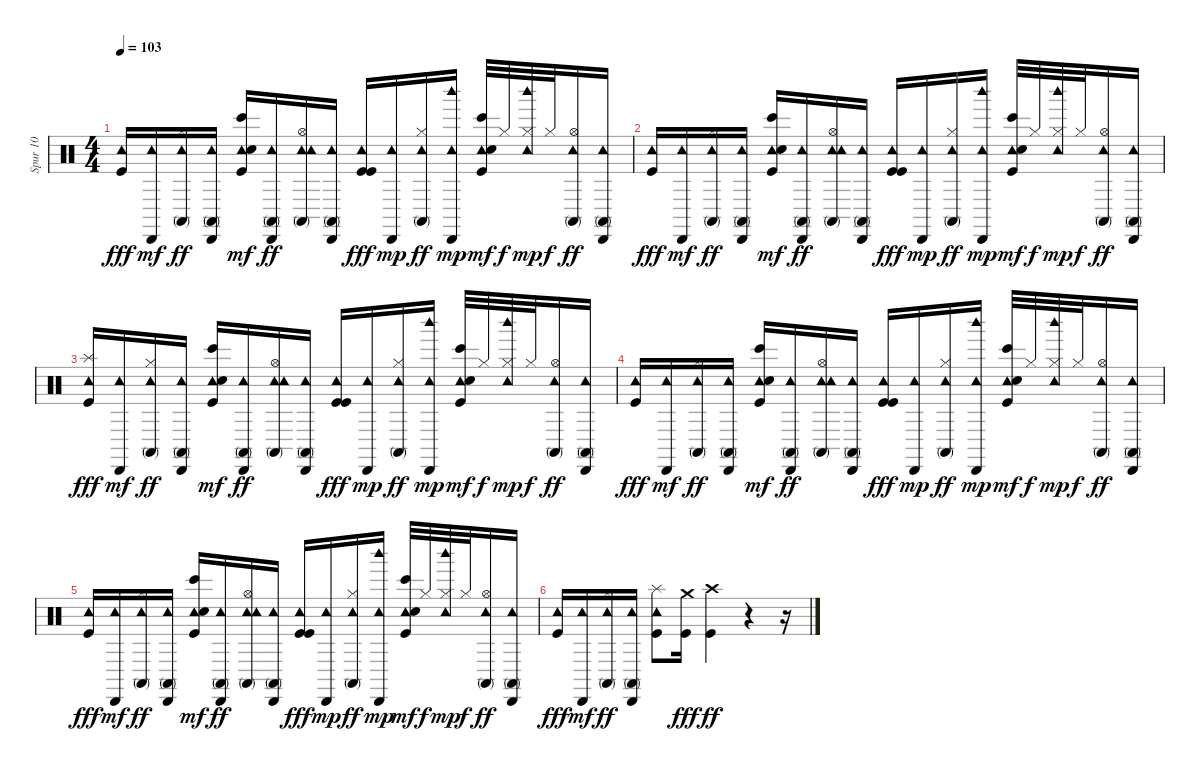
\track ("Spur 10" "Spur 10") {instrument percussion}
\staff {score}
\articulation defaults
\ts (4 4)
\tempo 103
\clef neutral
\ks c
("Tambourine (hit)" "Kick (hit)").16{dy fff} ("Tambourine (hit)" "Cabasa (hit)").16{dy mf} ("Tambourine (hit)" "Hi-Hat (closed)" "Conga high (mute)").16{dy ff} ("Tambourine (hit)" "Cabasa (hit)" "Conga high (mute)").16 ("Tambourine (hit)" "Kick (hit)" "Electric Snare (hit)" "Bongo High (hit)").16{dy mf} ("Tambourine (hit)" "Cabasa (hit)" "Conga high (mute)").16{dy ff} ("Tambourine (hit)" "Hi-Hat (open)" "Tambourine (hit)" "Conga high (mute)").16 ("Tambourine (hit)" "Cabasa (hit)" "Conga high (mute)").16 ("Tambourine (hit)" "Kick (hit)" "Kick (hit)").16{dy fff} ("Cabasa (hit)" "Tambourine (hit)").16{dy mp} ("Hi-Hat (closed)" "Tambourine (hit)" "Conga high (mute)").16{dy ff} ("Cabasa (hit)" "Tambourine (hit)" "Woodblock high (hit)").16{dy mp} ("Tambourine (hit)" "Kick (hit)" "Electric Snare (hit)" "Bongo High (hit)").32{dy mf} "Hi-Hat (closed)".32{dy f} ("Hi-Hat (closed)" "Tambourine (hit)" "Woodblock high (hit)").32{dy mp} "Hi-Hat (closed)".32{dy f} ("Hi-Hat (open)" "Tambourine (hit)" "Conga high (mute)").16{dy ff} ("Tambourine (hit)" "Cabasa (hit)" "Conga high (mute)").16 |
("Tambourine (hit)" "Kick (hit)").16{dy fff} ("Tambourine (hit)" "Cabasa (hit)").16{dy mf} ("Tambourine (hit)" "Hi-Hat (closed)" "Conga high (mute)").16{dy ff} ("Tambourine (hit)" "Cabasa (hit)" "Conga high (mute)").16 ("Tambourine (hit)" "Kick (hit)" "Electric Snare (hit)" "Bongo High (hit)").16{dy mf} ("Tambourine (hit)" "Cabasa (hit)" "Conga high (mute)").16{dy ff} ("Tambourine (hit)" "Hi-Hat (open)" "Tambourine (hit)" "Conga high (mute)").16 ("Tambourine (hit)" "Cabasa (hit)" "Conga high (mute)").16 ("Tambourine (hit)" "Kick (hit)" "Kick (hit)").16{dy fff} ("Cabasa (hit)" "Tambourine (hit)").16{dy mp} ("Hi-Hat (closed)" "Tambourine (hit)" "Conga high (mute)").16{dy ff} ("Cabasa (hit)" "Tambourine (hit)" "Woodblock high (hit)").16{dy mp} ("Tambourine (hit)" "Kick (hit)" "Electric Snare (hit)" "Bongo High (hit)").32{dy mf} "Hi-Hat (closed)".32{dy f} ("Hi-Hat (closed)" "Tambourine (hit)" "Woodblock high (hit)").32{dy mp} "Hi-Hat (closed)".32{dy f} ("Hi-Hat (open)" "Tambourine (hit)" "Conga high (mute)").16{dy ff} ("Tambourine (hit)" "Cabasa (hit)" "Conga high (mute)").16 |
("Tambourine (hit)" "Splash (hit)" "Kick (hit)").16{dy fff} ("Tambourine (hit)" "Cabasa (hit)").16{dy mf} ("Tambourine (hit)" "Hi-Hat (closed)" "Conga high (mute)").16{dy ff} ("Tambourine (hit)" "Cabasa (hit)" "Conga high (mute)").16 ("Tambourine (hit)" "Kick (hit)" "Electric Snare (hit)" "Bongo High (hit)").16{dy mf} ("Tambourine (hit)" "Cabasa (hit)" "Conga high (mute)").16{dy ff} ("Tambourine (hit)" "Hi-Hat (open)" "Tambourine (hit)" "Conga high (mute)").16 ("Tambourine (hit)" "Cabasa (hit)" "Conga high (mute)").16 ("Tambourine (hit)" "Kick (hit)" "Kick (hit)").16{dy fff} ("Cabasa (hit)" "Tambourine (hit)").16{dy mp} ("Hi-Hat (closed)" "Tambourine (hit)" "Conga high (mute)").16{dy ff} ("Cabasa (hit)" "Tambourine (hit)" "Woodblock high (hit)").16{dy mp} ("Tambourine (hit)" "Kick (hit)" "Electric Snare (hit)" "Bongo High (hit)").32{dy mf} "Hi-Hat (closed)".32{dy f} ("Hi-Hat (closed)" "Tambourine (hit)" "Woodblock high (hit)").32{dy mp} "Hi-Hat (closed)".32{dy f} ("Hi-Hat (open)" "Tambourine (hit)" "Conga high (mute)").16{dy ff} ("Tambourine (hit)" "Cabasa (hit)" "Conga high (mute)").16 |
("Tambourine (hit)" "Kick (hit)").16{dy fff} ("Tambourine (hit)" "Cabasa (hit)").16{dy mf} ("Tambourine (hit)" "Hi-Hat (closed)" "Conga high (mute)").16{dy ff} ("Tambourine (hit)" "Cabasa (hit)" "Conga high (mute)").16 ("Tambourine (hit)" "Kick (hit)" "Electric Snare (hit)" "Bongo High (hit)").16{dy mf} ("Tambourine (hit)" "Cabasa (hit)" "Conga high (mute)").16{dy ff} ("Tambourine (hit)" "Hi-Hat (open)" "Tambourine (hit)" "Conga high (mute)").16 ("Tambourine (hit)" "Cabasa (hit)" "Conga high (mute)").16 ("Tambourine (hit)" "Kick (hit)" "Kick (hit)").16{dy fff} ("Cabasa (hit)" "Tambourine (hit)").16{dy mp} ("Hi-Hat (closed)" "Tambourine (hit)" "Conga high (mute)").16{dy ff} ("Cabasa (hit)" "Tambourine (hit)" "Woodblock high (hit)").16{dy mp} ("Tambourine (hit)" "Kick (hit)" "Electric Snare (hit)" "Bongo High (hit)").32{dy mf} "Hi-Hat (closed)".32{dy f} ("Hi-Hat (closed)" "Tambourine (hit)" "Woodblock high (hit)").32{dy mp} "Hi-Hat (closed)".32{dy f} ("Hi-Hat (open)" "Tambourine (hit)" "Conga high (mute)").16{dy ff} ("Tambourine (hit)" "Cabasa (hit)" "Conga high (mute)").16 |
("Tambourine (hit)" "Kick (hit)").16{dy fff} ("Tambourine (hit)" "Cabasa (hit)").16{dy mf} ("Tambourine (hit)" "Hi-Hat (closed)" "Conga high (mute)").16{dy ff} ("Tambourine (hit)" "Cabasa (hit)" "Conga high (mute)").16 ("Tambourine (hit)" "Kick (hit)" "Electric Snare (hit)" "Bongo High (hit)").16{dy mf} ("Tambourine (hit)" "Cabasa (hit)" "Conga high (mute)").16{dy ff} ("Tambourine (hit)" "Hi-Hat (open)" "Tambourine (hit)" "Conga high (mute)").16 ("Tambourine (hit)" "Cabasa (hit)" "Conga high (mute)").16 ("Tambourine (hit)" "Kick (hit)" "Kick (hit)").16{dy fff} ("Cabasa (hit)" "Tambourine (hit)").16{dy mp} ("Hi-Hat (closed)" "Tambourine (hit)" "Conga high (mute)").16{dy ff} ("Cabasa (hit)" "Tambourine (hit)" "Woodblock high (hit)").16{dy mp} ("Tambourine (hit)" "Kick (hit)" "Electric Snare (hit)" "Bongo High (hit)").32{dy mf} "Hi-Hat (closed)".32{dy f} ("Hi-Hat (closed)" "Tambourine (hit)" "Woodblock high (hit)").32{dy mp} "Hi-Hat (closed)".32{dy f} ("Hi-Hat (open)" "Tambourine (hit)" "Conga high (mute)").16{dy ff} ("Tambourine (hit)" "Cabasa (hit)" "Conga high (mute)").16 |
("Tambourine (hit)" "Kick (hit)").16{dy fff} ("Tambourine (hit)" "Cabasa (hit)").16{dy mf} ("Tambourine (hit)" "Hi-Hat (closed)" "Conga high (mute)").16{dy ff} ("Tambourine (hit)" "Cabasa (hit)" "Conga high (mute)").16 ("Tambourine (hit)" "Kick (hit)" "Splash (hit)").8 ("Crash medium (hit)" "Kick (hit)").16{dy fff} ("Kick (hit)" "Crash high (hit)").4{dy ff} r.4 r.16
